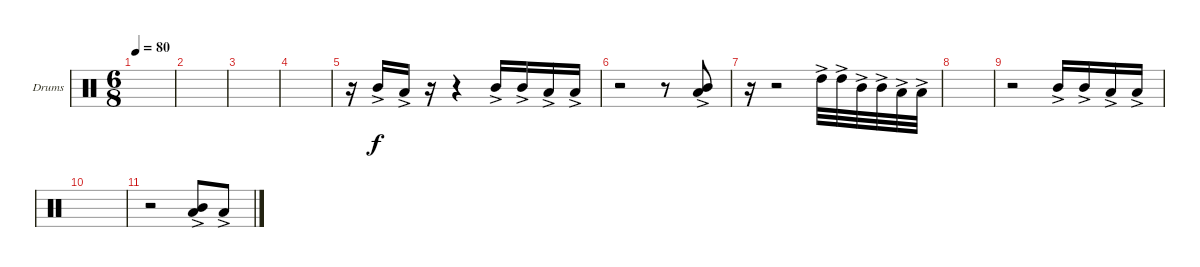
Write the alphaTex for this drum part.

\defaultSystemsLayout 4
\bracketExtendMode groupsimilarinstruments
\firstSystemTrackNameOrientation horizontal
\otherSystemsTrackNameOrientation horizontal
\track ("Drumkit" "Drums") {instrument percussion}
\staff {score}
\articulation defaults
\ts (6 8)
\tempo 80
\clef neutral
\scale
0.333333
\ks c
|
\scale
0.333333 |
\scale
0.333333 |
\scale
0.333333 |
\scale
0.333333 r.16 "Mid Tom (hit)"{ac}.16 "Low Tom (hit)"{ac}.16 r.16 r.4 "Mid Tom (hit)"{ac}.16 "Mid Tom (hit)"{ac}.16 "Low Tom (hit)"{ac}.16 "Low Tom (hit)"{ac}.16 |
\scale
0.24979 r.2 r.8 ("Mid Tom (hit)"{ac} "Low Tom (hit)"{ac}).8 |
\scale
0.430996 r.16 r.2 "High Tom (hit)"{ac}.32 "High Tom (hit)"{ac}.32 "Mid Tom (hit)"{ac}.32 "Mid Tom (hit)"{ac}.32 "Low Tom (hit)"{ac}.32 "Low Tom (hit)"{ac}.32 |
\scale
0.333333 |
\scale
0.333333 r.2 "Mid Tom (hit)"{ac}.16 "Mid Tom (hit)"{ac}.16 "Low Tom (hit)"{ac}.16 "Low Tom (hit)"{ac}.16 |
\scale
0.333333 |
\scale
0.333333 r.2 ("Mid Tom (hit)"{ac} "Low Tom (hit)"{ac}).8 "Low Tom (hit)"{ac}.8 |
\scale
0.333333 |
\scale
0.333333 |
\scale
0.333333 |
\scale
0.333333 |
\scale
0.333333
